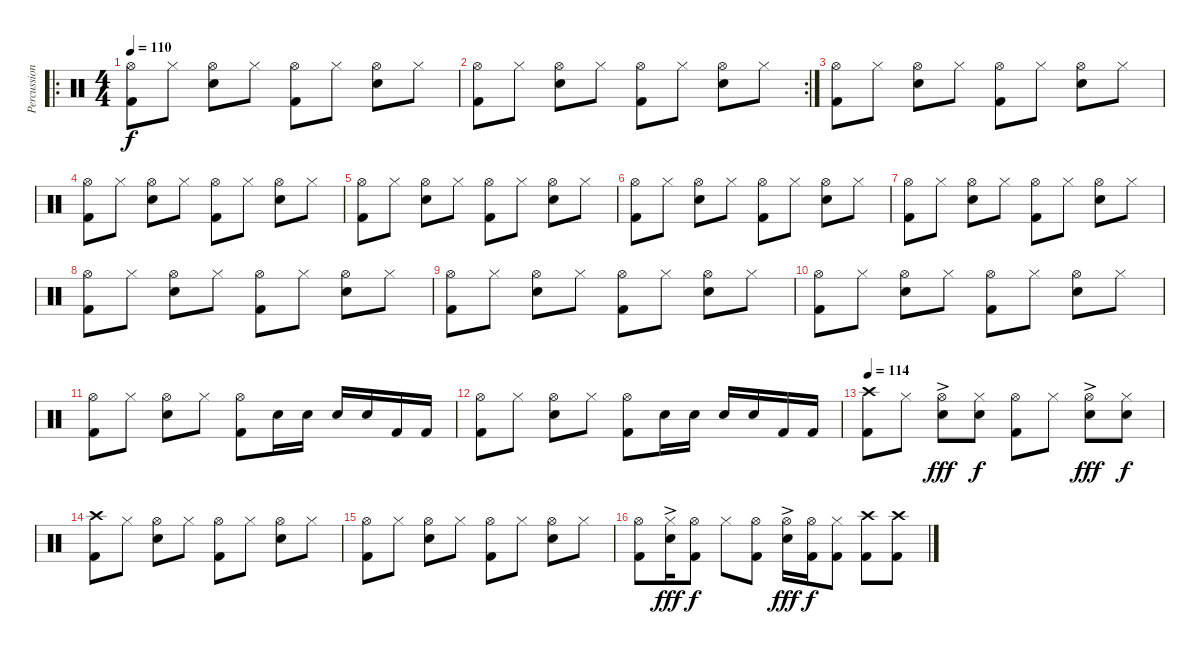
\track ("Percussion" "Percussion") {instrument percussion}
\staff {score}
\articulation defaults
\ro
\ts (4 4)
\tempo 110
\clef neutral
\ks c
("Hi-Hat (open)" "Kick (hit) 2").8{dy f} "Hi-Hat (closed)".8 ("Hi-Hat (open)" "Snare (hit) 2").8 "Hi-Hat (closed)".8 ("Hi-Hat (open)" "Kick (hit) 2").8 "Hi-Hat (closed)".8 ("Hi-Hat (open)" "Snare (hit) 2").8 "Hi-Hat (closed)".8 |
\rc 2
("Hi-Hat (open)" "Kick (hit) 2").8 "Hi-Hat (closed)".8 ("Hi-Hat (open)" "Snare (hit) 2").8 "Hi-Hat (closed)".8 ("Hi-Hat (open)" "Kick (hit) 2").8 "Hi-Hat (closed)".8 ("Hi-Hat (open)" "Snare (hit) 2").8 "Hi-Hat (closed)".8 |
("Hi-Hat (open)" "Kick (hit) 2").8 "Hi-Hat (closed)".8 ("Hi-Hat (open)" "Snare (hit) 2").8 "Hi-Hat (closed)".8 ("Hi-Hat (open)" "Kick (hit) 2").8 "Hi-Hat (closed)".8 ("Hi-Hat (open)" "Snare (hit) 2").8 "Hi-Hat (closed)".8 |
("Hi-Hat (open)" "Kick (hit) 2").8 "Hi-Hat (closed)".8 ("Hi-Hat (open)" "Snare (hit) 2").8 "Hi-Hat (closed)".8 ("Hi-Hat (open)" "Kick (hit) 2").8 "Hi-Hat (closed)".8 ("Hi-Hat (open)" "Snare (hit) 2").8 "Hi-Hat (closed)".8 |
("Hi-Hat (open)" "Kick (hit) 2").8 "Hi-Hat (closed)".8 ("Hi-Hat (open)" "Snare (hit) 2").8 "Hi-Hat (closed)".8 ("Hi-Hat (open)" "Kick (hit) 2").8 "Hi-Hat (closed)".8 ("Hi-Hat (open)" "Snare (hit) 2").8 "Hi-Hat (closed)".8 |
("Hi-Hat (open)" "Kick (hit) 2").8 "Hi-Hat (closed)".8 ("Hi-Hat (open)" "Snare (hit) 2").8 "Hi-Hat (closed)".8 ("Hi-Hat (open)" "Kick (hit) 2").8 "Hi-Hat (closed)".8 ("Hi-Hat (open)" "Snare (hit) 2").8 "Hi-Hat (closed)".8 |
("Hi-Hat (open)" "Kick (hit) 2").8 "Hi-Hat (closed)".8 ("Hi-Hat (open)" "Snare (hit) 2").8 "Hi-Hat (closed)".8 ("Hi-Hat (open)" "Kick (hit) 2").8 "Hi-Hat (closed)".8 ("Hi-Hat (open)" "Snare (hit) 2").8 "Hi-Hat (closed)".8 |
("Hi-Hat (open)" "Kick (hit) 2").8 "Hi-Hat (closed)".8 ("Hi-Hat (open)" "Snare (hit) 2").8 "Hi-Hat (closed)".8 ("Hi-Hat (open)" "Kick (hit) 2").8 "Hi-Hat (closed)".8 ("Hi-Hat (open)" "Snare (hit) 2").8 "Hi-Hat (closed)".8 |
("Hi-Hat (open)" "Kick (hit) 2").8 "Hi-Hat (closed)".8 ("Hi-Hat (open)" "Snare (hit) 2").8 "Hi-Hat (closed)".8 ("Hi-Hat (open)" "Kick (hit) 2").8 "Hi-Hat (closed)".8 ("Hi-Hat (open)" "Snare (hit) 2").8 "Hi-Hat (closed)".8 |
("Hi-Hat (open)" "Kick (hit) 2").8 "Hi-Hat (closed)".8 ("Hi-Hat (open)" "Snare (hit) 2").8 "Hi-Hat (closed)".8 ("Hi-Hat (open)" "Kick (hit) 2").8 "Hi-Hat (closed)".8 ("Hi-Hat (open)" "Snare (hit) 2").8 "Hi-Hat (closed)".8 |
("Hi-Hat (open)" "Kick (hit) 2").8 "Hi-Hat (closed)".8 ("Hi-Hat (open)" "Snare (hit) 2").8 "Hi-Hat (closed)".8 ("Hi-Hat (open)" "Kick (hit) 2").8 "Snare (hit) 2".16 "Snare (hit) 2".16 "Snare (hit) 2".16 "Snare (hit) 2".16 "Kick (hit) 2".16 "Kick (hit) 2".16 |
("Hi-Hat (open)" "Kick (hit) 2").8 "Hi-Hat (closed)".8 ("Hi-Hat (open)" "Snare (hit) 2").8 "Hi-Hat (closed)".8 ("Hi-Hat (open)" "Kick (hit) 2").8 "Snare (hit) 2".16 "Snare (hit) 2".16 "Snare (hit) 2".16 "Snare (hit) 2".16 "Kick (hit) 2".16 "Kick (hit) 2".16 |
\tempo 116
\tempo 114
("Crash high (hit)" "Kick (hit) 2").8 "Hi-Hat (closed)".8 ("Hi-Hat (open)" "Snare (hit) 2"{ac}).8{dy fff} ("Hi-Hat (closed)" "Snare (hit) 2").8{dy f} ("Hi-Hat (open)" "Kick (hit) 2").8 "Hi-Hat (closed)".8 ("Hi-Hat (open)" "Snare (hit) 2"{ac}).8{dy fff} ("Hi-Hat (closed)" "Snare (hit) 2").8{dy f} |
("Crash high (hit)" "Kick (hit) 2").8 "Hi-Hat (closed)".8 ("Hi-Hat (open)" "Snare (hit) 2").8 "Hi-Hat (closed)".8 ("Hi-Hat (open)" "Kick (hit) 2").8 "Hi-Hat (closed)".8 ("Hi-Hat (open)" "Snare (hit) 2").8 "Hi-Hat (closed)".8 |
("Hi-Hat (open)" "Kick (hit) 2").8 "Hi-Hat (closed)".8 ("Hi-Hat (open)" "Snare (hit) 2").8 "Hi-Hat (closed)".8 ("Hi-Hat (open)" "Kick (hit) 2").8 "Hi-Hat (closed)".8 ("Hi-Hat (open)" "Snare (hit) 2").8 "Hi-Hat (closed)".8 |
("Hi-Hat (open)" "Kick (hit) 2").8 ("Hi-Hat (closed)" "Snare (hit) 2"{ac}).16{dy fff} ("Hi-Hat (open)" "Kick (hit) 2").8{dy f} "Hi-Hat (closed)".8 ("Hi-Hat (open)" "Kick (hit) 2").8 ("Hi-Hat (open)" "Snare (hit) 2"{ac}).16{dy fff} ("Hi-Hat (open)" "Kick (hit) 2").16{dy f} ("Hi-Hat (closed)" "Kick (hit) 2").8 ("Crash high (hit)" "Kick (hit) 2").8 ("Crash high (hit)" "Kick (hit) 2").8
